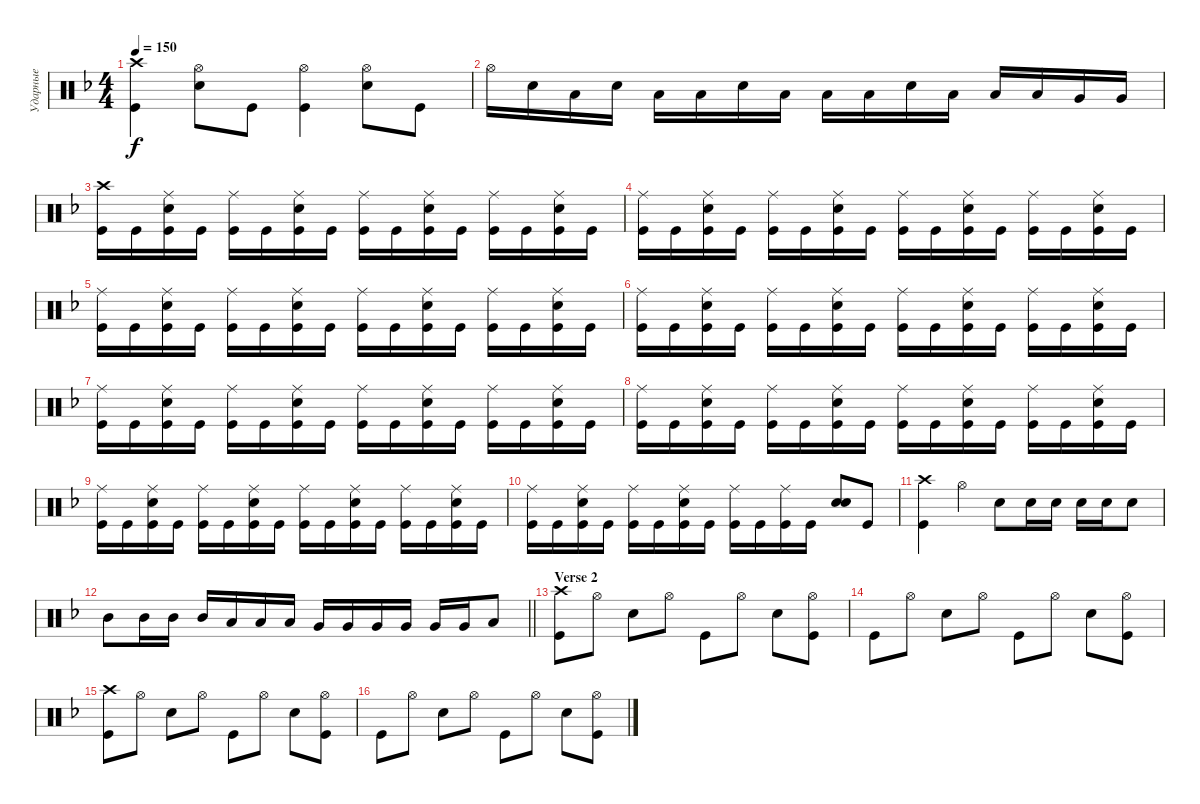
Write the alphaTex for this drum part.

\track ("Ударные" "Ударные") {instrument percussion}
\staff {score}
\articulation defaults
\ts (4 4)
\tempo 150
\clef neutral
\ks dminor
("Kick (hit)" "Crash high (hit)").4{dy f} ("Snare (hit) 2" "Hi-Hat (open)").8 "Kick (hit)".8 ("Kick (hit)" "Hi-Hat (open)").4 ("Snare (hit) 2" "Hi-Hat (open)").8 "Kick (hit)".8 |
"Hi-Hat (open)".16 "Snare (hit) 2".16 "Low Tom (hit)".16 "Snare (hit) 2".16 "Low Tom (hit)".16 "Low Tom (hit)".16 "Snare (hit) 2".16 "Low Tom (hit)".16 "Low Tom (hit)".16 "Low Tom (hit)".16 "Snare (hit) 2".16 "Low Tom (hit)".16 "Low Tom (hit)".16 "Low Tom (hit)".16 "Very Low Tom (hit)".16 "Very Low Tom (hit)".16 |
("Kick (hit)" "Crash high (hit)").16 "Kick (hit)".16 ("Kick (hit)" "Snare (hit) 2" "Ride (middle)").16 "Kick (hit)".16 ("Kick (hit)" "Ride (middle)").16 "Kick (hit)".16 ("Kick (hit)" "Snare (hit) 2" "Ride (middle)").16 "Kick (hit)".16 ("Kick (hit)" "Ride (middle)").16 "Kick (hit)".16 ("Snare (hit) 2" "Kick (hit)" "Ride (middle)").16 "Kick (hit)".16 ("Kick (hit)" "Ride (middle)").16 "Kick (hit)".16 ("Kick (hit)" "Snare (hit) 2" "Ride (middle)").16 "Kick (hit)".16 |
("Kick (hit)" "Ride (middle)").16 "Kick (hit)".16 ("Kick (hit)" "Snare (hit) 2" "Ride (middle)").16 "Kick (hit)".16 ("Kick (hit)" "Ride (middle)").16 "Kick (hit)".16 ("Kick (hit)" "Snare (hit) 2" "Ride (middle)").16 "Kick (hit)".16 ("Kick (hit)" "Ride (middle)").16 "Kick (hit)".16 ("Snare (hit) 2" "Kick (hit)" "Ride (middle)").16 "Kick (hit)".16 ("Kick (hit)" "Ride (middle)").16 "Kick (hit)".16 ("Kick (hit)" "Snare (hit) 2" "Ride (middle)").16 "Kick (hit)".16 |
("Kick (hit)" "Ride (middle)").16 "Kick (hit)".16 ("Kick (hit)" "Snare (hit) 2" "Ride (middle)").16 "Kick (hit)".16 ("Kick (hit)" "Ride (middle)").16 "Kick (hit)".16 ("Kick (hit)" "Snare (hit) 2" "Ride (middle)").16 "Kick (hit)".16 ("Kick (hit)" "Ride (middle)").16 "Kick (hit)".16 ("Snare (hit) 2" "Kick (hit)" "Ride (middle)").16 "Kick (hit)".16 ("Kick (hit)" "Ride (middle)").16 "Kick (hit)".16 ("Kick (hit)" "Snare (hit) 2" "Ride (middle)").16 "Kick (hit)".16 |
("Kick (hit)" "Ride (middle)").16 "Kick (hit)".16 ("Kick (hit)" "Snare (hit) 2" "Ride (middle)").16 "Kick (hit)".16 ("Kick (hit)" "Ride (middle)").16 "Kick (hit)".16 ("Kick (hit)" "Snare (hit) 2" "Ride (middle)").16 "Kick (hit)".16 ("Kick (hit)" "Ride (middle)").16 "Kick (hit)".16 ("Snare (hit) 2" "Kick (hit)" "Ride (middle)").16 "Kick (hit)".16 ("Kick (hit)" "Ride (middle)").16 "Kick (hit)".16 ("Kick (hit)" "Snare (hit) 2" "Ride (middle)").16 "Kick (hit)".16 |
("Kick (hit)" "Ride (middle)").16 "Kick (hit)".16 ("Kick (hit)" "Snare (hit) 2" "Ride (middle)").16 "Kick (hit)".16 ("Kick (hit)" "Ride (middle)").16 "Kick (hit)".16 ("Kick (hit)" "Snare (hit) 2" "Ride (middle)").16 "Kick (hit)".16 ("Kick (hit)" "Ride (middle)").16 "Kick (hit)".16 ("Snare (hit) 2" "Kick (hit)" "Ride (middle)").16 "Kick (hit)".16 ("Kick (hit)" "Ride (middle)").16 "Kick (hit)".16 ("Kick (hit)" "Snare (hit) 2" "Ride (middle)").16 "Kick (hit)".16 |
("Kick (hit)" "Ride (middle)").16 "Kick (hit)".16 ("Kick (hit)" "Snare (hit) 2" "Ride (middle)").16 "Kick (hit)".16 ("Kick (hit)" "Ride (middle)").16 "Kick (hit)".16 ("Kick (hit)" "Snare (hit) 2" "Ride (middle)").16 "Kick (hit)".16 ("Kick (hit)" "Ride (middle)").16 "Kick (hit)".16 ("Snare (hit) 2" "Kick (hit)" "Ride (middle)").16 "Kick (hit)".16 ("Kick (hit)" "Ride (middle)").16 "Kick (hit)".16 ("Kick (hit)" "Snare (hit) 2" "Ride (middle)").16 "Kick (hit)".16 |
("Kick (hit)" "Ride (middle)").16 "Kick (hit)".16 ("Kick (hit)" "Snare (hit) 2" "Ride (middle)").16 "Kick (hit)".16 ("Kick (hit)" "Ride (middle)").16 "Kick (hit)".16 ("Kick (hit)" "Snare (hit) 2" "Ride (middle)").16 "Kick (hit)".16 ("Kick (hit)" "Ride (middle)").16 "Kick (hit)".16 ("Snare (hit) 2" "Kick (hit)" "Ride (middle)").16 "Kick (hit)".16 ("Kick (hit)" "Ride (middle)").16 "Kick (hit)".16 ("Kick (hit)" "Snare (hit) 2" "Ride (middle)").16 "Kick (hit)".16 |
("Kick (hit)" "Ride (middle)").16 "Kick (hit)".16 ("Kick (hit)" "Snare (hit) 2" "Ride (middle)").16 "Kick (hit)".16 ("Kick (hit)" "Ride (middle)").16 "Kick (hit)".16 ("Kick (hit)" "Snare (hit) 2" "Ride (middle)").16 "Kick (hit)".16 ("Kick (hit)" "Ride (middle)").16 "Kick (hit)".16 ("Kick (hit)" "Ride (middle)").16 "Kick (hit)".16 ("Snare (hit) 2" "Snare (hit) 2").8{bd 480} "Kick (hit)".8 |
("Kick (hit)" "Crash high (hit)").4 "Hi-Hat (open)".4 "Snare (hit) 2".8 "Snare (hit) 2".16 "Snare (hit) 2".16 "Snare (hit) 2".16 "Snare (hit) 2".16 "Snare (hit) 2".8 |
\barLineRight lightlight "Mid Tom (hit)".8 "Mid Tom (hit)".16 "Mid Tom (hit)".16 "Mid Tom (hit)".16 "Low Tom (hit)".16 "Low Tom (hit)".16 "Low Tom (hit)".16 "Very Low Tom (hit)".16 "Very Low Tom (hit)".16 "Very Low Tom (hit)".16 "Very Low Tom (hit)".16 "Very Low Tom (hit)".16 "Very Low Tom (hit)".16 "Low Floor Tom (hit)".8
|
\section ("" "Verse 2")
("Kick (hit)" "Crash high (hit)").8 "Hi-Hat (open)".8 "Snare (hit) 2".8 "Hi-Hat (open)".8 "Kick (hit)".8 "Hi-Hat (open)".8 "Snare (hit) 2".8 ("Kick (hit)" "Hi-Hat (open)").8 |
"Kick (hit)".8 "Hi-Hat (open)".8 "Snare (hit) 2".8 "Hi-Hat (open)".8 "Kick (hit)".8 "Hi-Hat (open)".8 "Snare (hit) 2".8 ("Kick (hit)" "Hi-Hat (open)").8 |
("Kick (hit)" "Crash high (hit)").8 "Hi-Hat (open)".8 "Snare (hit) 2".8 "Hi-Hat (open)".8 "Kick (hit)".8 "Hi-Hat (open)".8 "Snare (hit) 2".8 ("Kick (hit)" "Hi-Hat (open)").8 |
"Kick (hit)".8 "Hi-Hat (open)".8 "Snare (hit) 2".8 "Hi-Hat (open)".8 "Kick (hit)".8 "Hi-Hat (open)".8 "Snare (hit) 2".8 ("Kick (hit)" "Hi-Hat (open)").8
